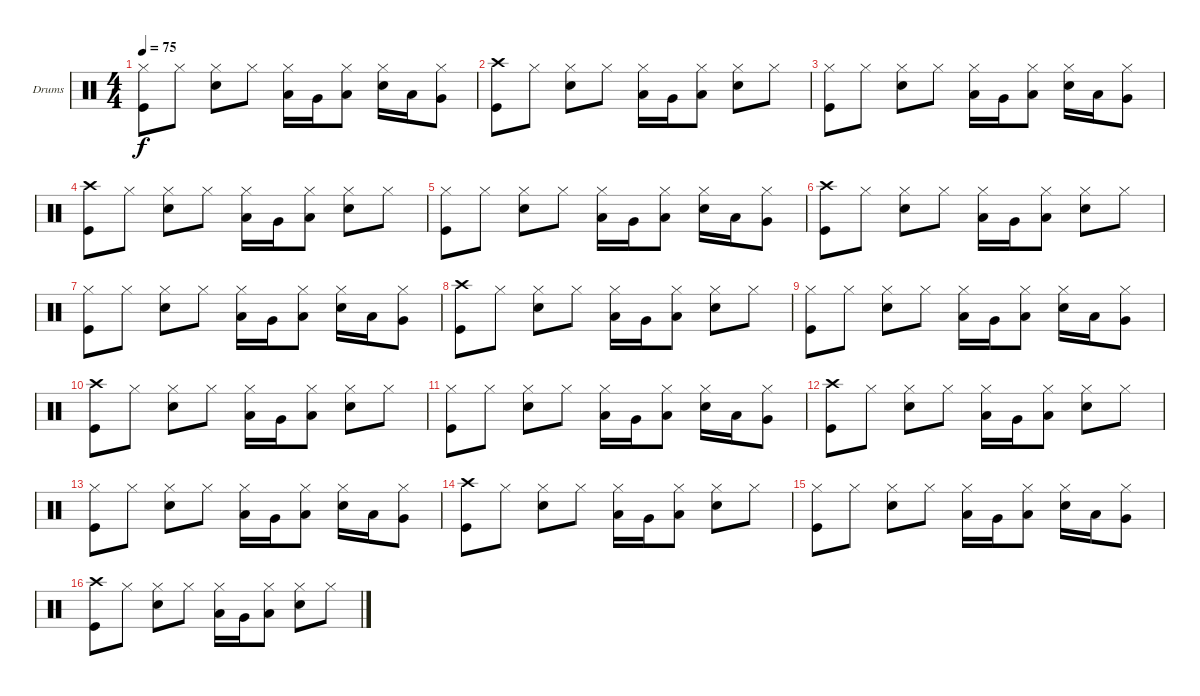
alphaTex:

\defaultSystemsLayout 4
\bracketExtendMode groupsimilarinstruments
\firstSystemTrackNameOrientation horizontal
\otherSystemsTrackNameOrientation horizontal
\track ("Craig Nunenmacher" "Drums") {instrument percussion}
\staff {score}
\articulation defaults
\ts (4 4)
\tempo 75
\clef neutral
\ks c
("Kick (hit)" "Hi-Hat (closed)").8{dy f} "Hi-Hat (closed)".8 ("Snare (hit) 2" "Hi-Hat (closed)").8 "Hi-Hat (closed)".8 ("Low Tom (hit)" "Hi-Hat (closed)").16 "Very Low Tom (hit)".16 ("Low Tom (hit)" "Hi-Hat (closed)").8 ("Snare (hit) 2" "Hi-Hat (closed)").16 "Low Tom (hit)".16 ("Very Low Tom (hit)" "Hi-Hat (closed)").8 |
("Kick (hit)" "Crash high (hit)").8 "Hi-Hat (closed)".8 ("Snare (hit) 2" "Hi-Hat (closed)").8 "Hi-Hat (closed)".8 ("Low Tom (hit)" "Hi-Hat (closed)").16 "Very Low Tom (hit)".16 ("Low Tom (hit)" "Hi-Hat (closed)").8 ("Snare (hit) 2" "Hi-Hat (closed)").8 "Hi-Hat (closed)".8 |
("Kick (hit)" "Hi-Hat (closed)").8 "Hi-Hat (closed)".8 ("Snare (hit) 2" "Hi-Hat (closed)").8 "Hi-Hat (closed)".8 ("Low Tom (hit)" "Hi-Hat (closed)").16 "Very Low Tom (hit)".16 ("Low Tom (hit)" "Hi-Hat (closed)").8 ("Snare (hit) 2" "Hi-Hat (closed)").16 "Low Tom (hit)".16 ("Very Low Tom (hit)" "Hi-Hat (closed)").8 |
("Kick (hit)" "Crash high (hit)").8 "Hi-Hat (closed)".8 ("Snare (hit) 2" "Hi-Hat (closed)").8 "Hi-Hat (closed)".8 ("Low Tom (hit)" "Hi-Hat (closed)").16 "Very Low Tom (hit)".16 ("Low Tom (hit)" "Hi-Hat (closed)").8 ("Snare (hit) 2" "Hi-Hat (closed)").8 "Hi-Hat (closed)".8 |
("Kick (hit)" "Hi-Hat (closed)").8 "Hi-Hat (closed)".8 ("Snare (hit) 2" "Hi-Hat (closed)").8 "Hi-Hat (closed)".8 ("Low Tom (hit)" "Hi-Hat (closed)").16 "Very Low Tom (hit)".16 ("Low Tom (hit)" "Hi-Hat (closed)").8 ("Snare (hit) 2" "Hi-Hat (closed)").16 "Low Tom (hit)".16 ("Very Low Tom (hit)" "Hi-Hat (closed)").8 |
("Kick (hit)" "Crash high (hit)").8 "Hi-Hat (closed)".8 ("Snare (hit) 2" "Hi-Hat (closed)").8 "Hi-Hat (closed)".8 ("Low Tom (hit)" "Hi-Hat (closed)").16 "Very Low Tom (hit)".16 ("Low Tom (hit)" "Hi-Hat (closed)").8 ("Snare (hit) 2" "Hi-Hat (closed)").8 "Hi-Hat (closed)".8 |
("Kick (hit)" "Hi-Hat (closed)").8 "Hi-Hat (closed)".8 ("Snare (hit) 2" "Hi-Hat (closed)").8 "Hi-Hat (closed)".8 ("Low Tom (hit)" "Hi-Hat (closed)").16 "Very Low Tom (hit)".16 ("Low Tom (hit)" "Hi-Hat (closed)").8 ("Snare (hit) 2" "Hi-Hat (closed)").16 "Low Tom (hit)".16 ("Very Low Tom (hit)" "Hi-Hat (closed)").8 |
("Kick (hit)" "Crash high (hit)").8 "Hi-Hat (closed)".8 ("Snare (hit) 2" "Hi-Hat (closed)").8 "Hi-Hat (closed)".8 ("Low Tom (hit)" "Hi-Hat (closed)").16 "Very Low Tom (hit)".16 ("Low Tom (hit)" "Hi-Hat (closed)").8 ("Snare (hit) 2" "Hi-Hat (closed)").8 "Hi-Hat (closed)".8 |
("Kick (hit)" "Hi-Hat (closed)").8 "Hi-Hat (closed)".8 ("Snare (hit) 2" "Hi-Hat (closed)").8 "Hi-Hat (closed)".8 ("Low Tom (hit)" "Hi-Hat (closed)").16 "Very Low Tom (hit)".16 ("Low Tom (hit)" "Hi-Hat (closed)").8 ("Snare (hit) 2" "Hi-Hat (closed)").16 "Low Tom (hit)".16 ("Very Low Tom (hit)" "Hi-Hat (closed)").8 |
("Kick (hit)" "Crash high (hit)").8 "Hi-Hat (closed)".8 ("Snare (hit) 2" "Hi-Hat (closed)").8 "Hi-Hat (closed)".8 ("Low Tom (hit)" "Hi-Hat (closed)").16 "Very Low Tom (hit)".16 ("Low Tom (hit)" "Hi-Hat (closed)").8 ("Snare (hit) 2" "Hi-Hat (closed)").8 "Hi-Hat (closed)".8 |
("Kick (hit)" "Hi-Hat (closed)").8 "Hi-Hat (closed)".8 ("Snare (hit) 2" "Hi-Hat (closed)").8 "Hi-Hat (closed)".8 ("Low Tom (hit)" "Hi-Hat (closed)").16 "Very Low Tom (hit)".16 ("Low Tom (hit)" "Hi-Hat (closed)").8 ("Snare (hit) 2" "Hi-Hat (closed)").16 "Low Tom (hit)".16 ("Very Low Tom (hit)" "Hi-Hat (closed)").8 |
("Kick (hit)" "Crash high (hit)").8 "Hi-Hat (closed)".8 ("Snare (hit) 2" "Hi-Hat (closed)").8 "Hi-Hat (closed)".8 ("Low Tom (hit)" "Hi-Hat (closed)").16 "Very Low Tom (hit)".16 ("Low Tom (hit)" "Hi-Hat (closed)").8 ("Snare (hit) 2" "Hi-Hat (closed)").8 "Hi-Hat (closed)".8 |
("Kick (hit)" "Hi-Hat (closed)").8 "Hi-Hat (closed)".8 ("Snare (hit) 2" "Hi-Hat (closed)").8 "Hi-Hat (closed)".8 ("Low Tom (hit)" "Hi-Hat (closed)").16 "Very Low Tom (hit)".16 ("Low Tom (hit)" "Hi-Hat (closed)").8 ("Snare (hit) 2" "Hi-Hat (closed)").16 "Low Tom (hit)".16 ("Very Low Tom (hit)" "Hi-Hat (closed)").8 |
("Kick (hit)" "Crash high (hit)").8 "Hi-Hat (closed)".8 ("Snare (hit) 2" "Hi-Hat (closed)").8 "Hi-Hat (closed)".8 ("Low Tom (hit)" "Hi-Hat (closed)").16 "Very Low Tom (hit)".16 ("Low Tom (hit)" "Hi-Hat (closed)").8 ("Snare (hit) 2" "Hi-Hat (closed)").8 "Hi-Hat (closed)".8 |
("Kick (hit)" "Hi-Hat (closed)").8 "Hi-Hat (closed)".8 ("Snare (hit) 2" "Hi-Hat (closed)").8 "Hi-Hat (closed)".8 ("Low Tom (hit)" "Hi-Hat (closed)").16 "Very Low Tom (hit)".16 ("Low Tom (hit)" "Hi-Hat (closed)").8 ("Snare (hit) 2" "Hi-Hat (closed)").16 "Low Tom (hit)".16 ("Very Low Tom (hit)" "Hi-Hat (closed)").8 |
("Kick (hit)" "Crash high (hit)").8 "Hi-Hat (closed)".8 ("Snare (hit) 2" "Hi-Hat (closed)").8 "Hi-Hat (closed)".8 ("Low Tom (hit)" "Hi-Hat (closed)").16 "Very Low Tom (hit)".16 ("Low Tom (hit)" "Hi-Hat (closed)").8 ("Snare (hit) 2" "Hi-Hat (closed)").8 "Hi-Hat (closed)".8
